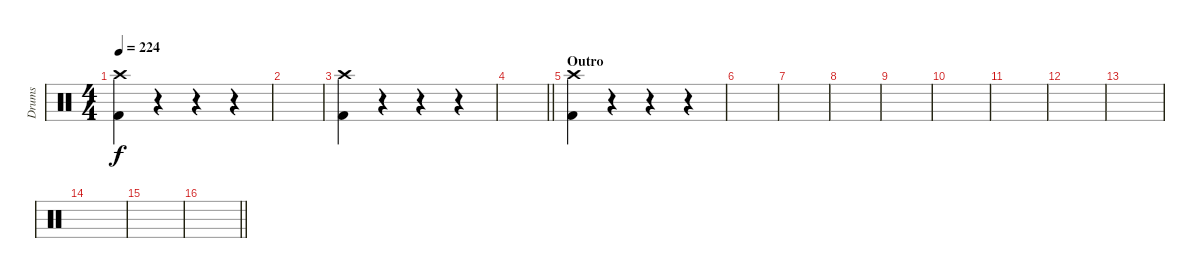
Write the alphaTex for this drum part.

\track ("Drums" "Drums") {instrument percussion}
\staff {score}
\articulation defaults
\ts (4 4)
\tempo 224
\clef neutral
\ks c
("Crash high (hit)" "Kick (hit) 2").4{dy f} r.4 r.4 r.4 |
|
("Crash high (hit)" "Kick (hit) 2").4 r.4 r.4 r.4 |
\barLineRight lightlight
|
\section ("" "Outro")
("Crash high (hit)" "Kick (hit) 2").4 r.4 r.4 r.4 |
|
|
|
|
|
|
|
|
|
|
\barLineRight lightlight
